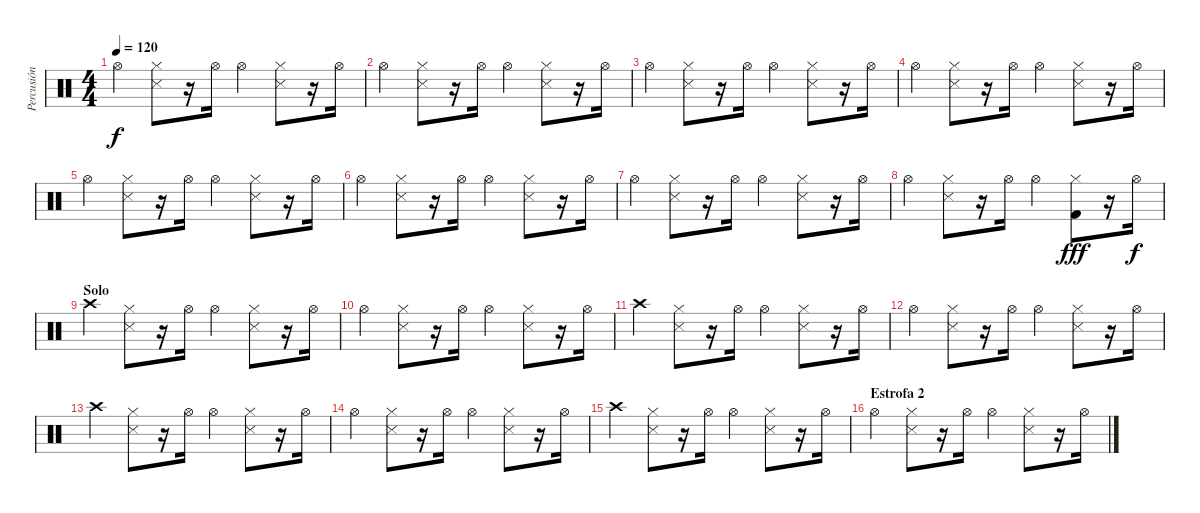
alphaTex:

\track ("Percusión" "Percusión") {instrument percussion}
\staff {score}
\articulation defaults
\ts (4 4)
\tempo 120
\clef neutral
\ks c "Hi-Hat (open)".4{dy f}
("Hi-Hat (closed)" "Snare (side stick) 3").8 r.16 "Hi-Hat (open)".16 "Hi-Hat (open)".4 ("Hi-Hat (closed)" "Snare (side stick) 3").8 r.16 "Hi-Hat (open)".16 |
"Hi-Hat (open)".4 ("Hi-Hat (closed)" "Snare (side stick) 3").8 r.16 "Hi-Hat (open)".16 "Hi-Hat (open)".4 ("Hi-Hat (closed)" "Snare (side stick) 3").8 r.16 "Hi-Hat (open)".16 |
"Hi-Hat (open)".4 ("Hi-Hat (closed)" "Snare (side stick) 3").8 r.16 "Hi-Hat (open)".16 "Hi-Hat (open)".4 ("Hi-Hat (closed)" "Snare (side stick) 3").8 r.16 "Hi-Hat (open)".16 |
"Hi-Hat (open)".4 ("Hi-Hat (closed)" "Snare (side stick) 3").8 r.16 "Hi-Hat (open)".16 "Hi-Hat (open)".4 ("Hi-Hat (closed)" "Snare (side stick) 3").8 r.16 "Hi-Hat (open)".16 |
"Hi-Hat (open)".4 ("Hi-Hat (closed)" "Snare (side stick) 3").8 r.16 "Hi-Hat (open)".16 "Hi-Hat (open)".4 ("Hi-Hat (closed)" "Snare (side stick) 3").8 r.16 "Hi-Hat (open)".16 |
"Hi-Hat (open)".4 ("Hi-Hat (closed)" "Snare (side stick) 3").8 r.16 "Hi-Hat (open)".16 "Hi-Hat (open)".4 ("Hi-Hat (closed)" "Snare (side stick) 3").8 r.16 "Hi-Hat (open)".16 |
"Hi-Hat (open)".4 ("Hi-Hat (closed)" "Snare (side stick) 3").8 r.16 "Hi-Hat (open)".16 "Hi-Hat (open)".4 ("Hi-Hat (closed)" "Snare (side stick) 3").8 r.16 "Hi-Hat (open)".16 |
"Hi-Hat (open)".4 ("Hi-Hat (closed)" "Snare (side stick) 3").8 r.16 "Hi-Hat (open)".16 "Hi-Hat (open)".4 ("Hi-Hat (closed)" "Kick (hit) 2").8{dy fff} r.16 "Hi-Hat (open)".16{dy f} |
\section ("" "Solo")
"Crash high (hit)".4 ("Hi-Hat (closed)" "Snare (side stick) 3").8 r.16 "Hi-Hat (open)".16 "Hi-Hat (open)".4 ("Hi-Hat (closed)" "Snare (side stick) 3").8 r.16 "Hi-Hat (open)".16 |
"Hi-Hat (open)".4 ("Hi-Hat (closed)" "Snare (side stick) 3").8 r.16 "Hi-Hat (open)".16 "Hi-Hat (open)".4 ("Hi-Hat (closed)" "Snare (side stick) 3").8 r.16 "Hi-Hat (open)".16 |
"Crash high (hit)".4 ("Hi-Hat (closed)" "Snare (side stick) 3").8 r.16 "Hi-Hat (open)".16 "Hi-Hat (open)".4 ("Hi-Hat (closed)" "Snare (side stick) 3").8 r.16 "Hi-Hat (open)".16 |
"Hi-Hat (open)".4 ("Hi-Hat (closed)" "Snare (side stick) 3").8 r.16 "Hi-Hat (open)".16 "Hi-Hat (open)".4 ("Hi-Hat (closed)" "Snare (side stick) 3").8 r.16 "Hi-Hat (open)".16 |
"Crash high (hit)".4 ("Hi-Hat (closed)" "Snare (side stick) 3").8 r.16 "Hi-Hat (open)".16 "Hi-Hat (open)".4 ("Hi-Hat (closed)" "Snare (side stick) 3").8 r.16 "Hi-Hat (open)".16 |
"Hi-Hat (open)".4 ("Hi-Hat (closed)" "Snare (side stick) 3").8 r.16 "Hi-Hat (open)".16 "Hi-Hat (open)".4 ("Hi-Hat (closed)" "Snare (side stick) 3").8 r.16 "Hi-Hat (open)".16 |
"Crash high (hit)".4 ("Hi-Hat (closed)" "Snare (side stick) 3").8 r.16 "Hi-Hat (open)".16 "Hi-Hat (open)".4 ("Hi-Hat (closed)" "Snare (side stick) 3").8 r.16 "Hi-Hat (open)".16 |
\section ("" "Estrofa 2")
"Hi-Hat (open)".4 ("Hi-Hat (closed)" "Snare (side stick) 3").8 r.16 "Hi-Hat (open)".16 "Hi-Hat (open)".4 ("Hi-Hat (closed)" "Snare (side stick) 3").8 r.16 "Hi-Hat (open)".16
